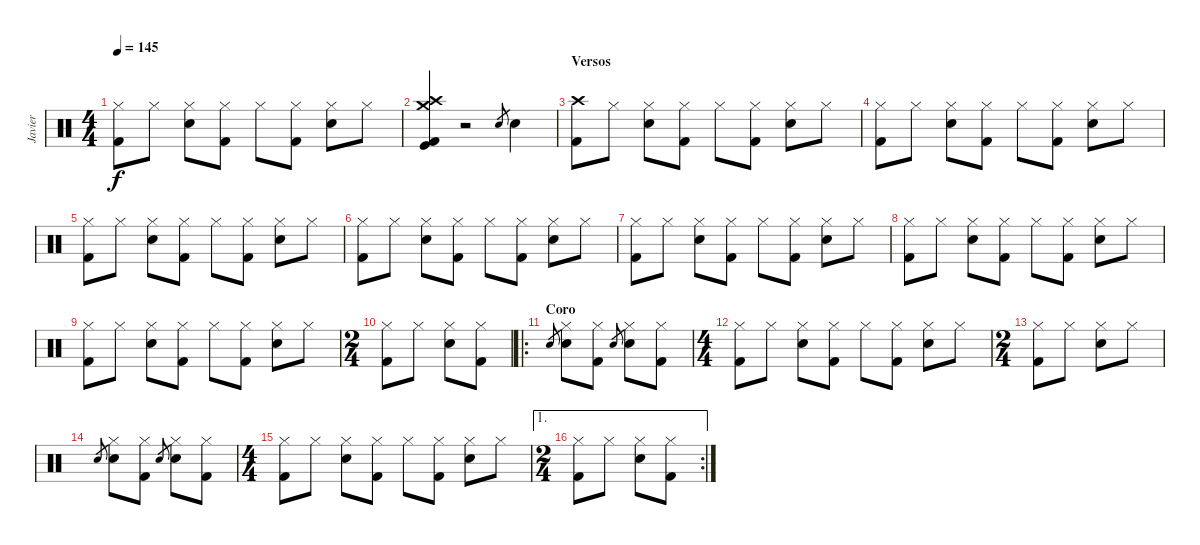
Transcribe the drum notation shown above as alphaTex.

\track ("Javier" "Javier") {instrument percussion}
\staff {score}
\articulation defaults
\ts (4 4)
\tempo 145
\clef neutral
\ks c
("Hi-Hat (closed)" "Kick (hit) 2").8{dy f} "Hi-Hat (closed)".8 ("Hi-Hat (closed)" "Snare (hit) 2").8 ("Hi-Hat (closed)" "Kick (hit) 2").8 "Hi-Hat (closed)".8 ("Hi-Hat (closed)" "Kick (hit) 2").8 ("Hi-Hat (closed)" "Snare (hit) 2").8 "Hi-Hat (closed)".8 |
("Crash high (hit)" "Kick (hit) 2" "Crash medium (hit)" "Kick (hit)").4 r.2 "Snare (hit) 2".8{gr} "Snare (hit) 2".4 |
\section ("" "Versos")
("Crash high (hit)" "Kick (hit) 2").8 "Hi-Hat (closed)".8 ("Hi-Hat (closed)" "Snare (hit) 2").8 ("Hi-Hat (closed)" "Kick (hit) 2").8 "Hi-Hat (closed)".8 ("Hi-Hat (closed)" "Kick (hit) 2").8 ("Hi-Hat (closed)" "Snare (hit) 2").8 "Hi-Hat (closed)".8 |
("Hi-Hat (closed)" "Kick (hit) 2").8 "Hi-Hat (closed)".8 ("Hi-Hat (closed)" "Snare (hit) 2").8 ("Hi-Hat (closed)" "Kick (hit) 2").8 "Hi-Hat (closed)".8 ("Hi-Hat (closed)" "Kick (hit) 2").8 ("Hi-Hat (closed)" "Snare (hit) 2").8 "Hi-Hat (closed)".8 |
("Hi-Hat (closed)" "Kick (hit) 2").8 "Hi-Hat (closed)".8 ("Hi-Hat (closed)" "Snare (hit) 2").8 ("Hi-Hat (closed)" "Kick (hit) 2").8 "Hi-Hat (closed)".8 ("Hi-Hat (closed)" "Kick (hit) 2").8 ("Hi-Hat (closed)" "Snare (hit) 2").8 "Hi-Hat (closed)".8 |
("Hi-Hat (closed)" "Kick (hit) 2").8 "Hi-Hat (closed)".8 ("Hi-Hat (closed)" "Snare (hit) 2").8 ("Hi-Hat (closed)" "Kick (hit) 2").8 "Hi-Hat (closed)".8 ("Hi-Hat (closed)" "Kick (hit) 2").8 ("Hi-Hat (closed)" "Snare (hit) 2").8 "Hi-Hat (closed)".8 |
("Hi-Hat (closed)" "Kick (hit) 2").8 "Hi-Hat (closed)".8 ("Hi-Hat (closed)" "Snare (hit) 2").8 ("Hi-Hat (closed)" "Kick (hit) 2").8 "Hi-Hat (closed)".8 ("Hi-Hat (closed)" "Kick (hit) 2").8 ("Hi-Hat (closed)" "Snare (hit) 2").8 "Hi-Hat (closed)".8 |
("Hi-Hat (closed)" "Kick (hit) 2").8 "Hi-Hat (closed)".8 ("Hi-Hat (closed)" "Snare (hit) 2").8 ("Hi-Hat (closed)" "Kick (hit) 2").8 "Hi-Hat (closed)".8 ("Hi-Hat (closed)" "Kick (hit) 2").8 ("Hi-Hat (closed)" "Snare (hit) 2").8 "Hi-Hat (closed)".8 |
("Hi-Hat (closed)" "Kick (hit) 2").8 "Hi-Hat (closed)".8 ("Hi-Hat (closed)" "Snare (hit) 2").8 ("Hi-Hat (closed)" "Kick (hit) 2").8 "Hi-Hat (closed)".8 ("Hi-Hat (closed)" "Kick (hit) 2").8 ("Hi-Hat (closed)" "Snare (hit) 2").8 "Hi-Hat (closed)".8 |
\ts (2 4)
("Hi-Hat (closed)" "Kick (hit) 2").8 "Hi-Hat (closed)".8 ("Hi-Hat (closed)" "Snare (hit) 2").8 ("Hi-Hat (closed)" "Kick (hit) 2").8 |
\ro
\section ("" "Coro")
"Snare (hit) 2".8{gr} ("Hi-Hat (closed)" "Snare (hit) 2").8 ("Hi-Hat (closed)" "Kick (hit) 2").8 "Snare (hit) 2".8{gr} ("Hi-Hat (closed)" "Snare (hit) 2").8 ("Hi-Hat (closed)" "Kick (hit) 2").8 |
\ts (4 4)
("Hi-Hat (closed)" "Kick (hit) 2").8 "Hi-Hat (closed)".8 ("Hi-Hat (closed)" "Snare (hit) 2").8 ("Hi-Hat (closed)" "Kick (hit) 2").8 "Hi-Hat (closed)".8 ("Hi-Hat (closed)" "Kick (hit) 2").8 ("Hi-Hat (closed)" "Snare (hit) 2").8 "Hi-Hat (closed)".8 |
\ts (2 4)
("Hi-Hat (closed)" "Kick (hit) 2").8 "Hi-Hat (closed)".8 ("Hi-Hat (closed)" "Snare (hit) 2").8 "Hi-Hat (closed)".8 |
"Snare (hit) 2".8{gr} ("Hi-Hat (closed)" "Snare (hit) 2").8 ("Hi-Hat (closed)" "Kick (hit) 2").8 "Snare (hit) 2".8{gr} ("Hi-Hat (closed)" "Snare (hit) 2").8 ("Hi-Hat (closed)" "Kick (hit) 2").8 |
\ts (4 4)
("Hi-Hat (closed)" "Kick (hit) 2").8 "Hi-Hat (closed)".8 ("Hi-Hat (closed)" "Snare (hit) 2").8 ("Hi-Hat (closed)" "Kick (hit) 2").8 "Hi-Hat (closed)".8 ("Hi-Hat (closed)" "Kick (hit) 2").8 ("Hi-Hat (closed)" "Snare (hit) 2").8 "Hi-Hat (closed)".8 |
\ae 1
\rc 2
\ts (2 4)
("Hi-Hat (closed)" "Kick (hit) 2").8 "Hi-Hat (closed)".8 ("Hi-Hat (closed)" "Snare (hit) 2").8 ("Hi-Hat (closed)" "Kick (hit) 2").8
